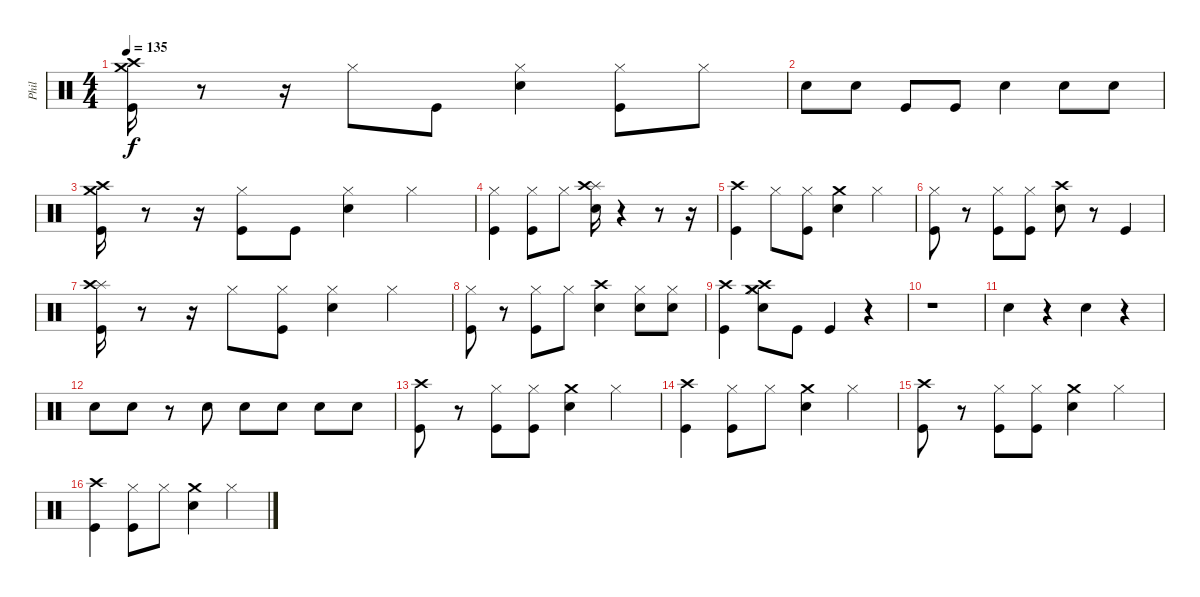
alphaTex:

\track ("Phil" "Phil") {instrument percussion}
\staff {score}
\articulation defaults
\ts (4 4)
\tempo 135
\clef neutral
\ks c
("Crash medium (hit)" "Crash high (hit)" "Kick (hit)").16{dy f} r.8 r.16 "Hi-Hat (closed)".8 "Kick (hit)".8 ("Hi-Hat (closed)" "Snare (hit) 2").4 ("Hi-Hat (closed)" "Kick (hit)").8 "Hi-Hat (closed)".8 |
"Snare (hit) 2".8 "Snare (hit) 2".8 "Kick (hit)".8 "Kick (hit)".8 "Snare (hit) 2".4 "Snare (hit) 2".8 "Snare (hit) 2".8 |
("Crash medium (hit)" "Kick (hit)" "Crash high (hit)").16 r.8 r.16 ("Hi-Hat (closed)" "Kick (hit)").8 "Kick (hit)".8 ("Hi-Hat (closed)" "Snare (hit) 2").4 "Hi-Hat (closed)".4 |
("Hi-Hat (closed)" "Kick (hit)").4 ("Hi-Hat (closed)" "Kick (hit)").8 "Hi-Hat (closed)".8 ("Splash (hit)" "Crash high (hit)" "Snare (hit) 2").16 r.4 r.8 r.16 |
("Crash high (hit)" "Kick (hit)").4 "Hi-Hat (closed)".8 ("Kick (hit)" "Hi-Hat (closed)").8 ("Snare (hit) 2" "Crash medium (hit)").4 "Hi-Hat (closed)".4 |
("Hi-Hat (closed)" "Kick (hit)").8 r.8 ("Kick (hit)" "Hi-Hat (closed)").8 ("Hi-Hat (closed)" "Kick (hit)").8 ("Crash high (hit)" "Snare (hit) 2").8 r.8 "Kick (hit)".4 |
("Splash (hit)" "Kick (hit)" "Crash high (hit)").16 r.8 r.16 "Hi-Hat (closed)".8 ("Kick (hit)" "Hi-Hat (closed)").8 ("Hi-Hat (closed)" "Snare (hit) 2").4 "Hi-Hat (closed)".4 |
("Hi-Hat (closed)" "Kick (hit)").8 r.8 ("Hi-Hat (closed)" "Kick (hit)").8 "Hi-Hat (closed)".8 ("Crash high (hit)" "Snare (hit) 2").4 ("Hi-Hat (closed)" "Snare (hit) 2").8 ("Hi-Hat (closed)" "Snare (hit) 2").8 |
("Crash high (hit)" "Kick (hit)").4 ("Crash high (hit)" "Snare (hit) 2" "Crash medium (hit)" "Hi-Hat (closed)").8 "Kick (hit)".8 "Kick (hit)".4 r.4 |
r.1 |
"Snare (hit) 2".4 r.4 "Snare (hit) 2".4 r.4 |
"Snare (hit) 2".8 "Snare (hit) 2".8 r.8 "Snare (hit) 2".8 "Snare (hit) 2".8 "Snare (hit) 2".8 "Snare (hit) 2".8 "Snare (hit) 2".8 |
("Crash high (hit)" "Kick (hit)").8 r.8 ("Kick (hit)" "Hi-Hat (closed)").8 ("Kick (hit)" "Hi-Hat (closed)").8 ("Crash medium (hit)" "Snare (hit) 2").4 "Hi-Hat (closed)".4 |
("Crash high (hit)" "Kick (hit)").4 ("Hi-Hat (closed)" "Kick (hit)").8 "Hi-Hat (closed)".8 ("Crash medium (hit)" "Snare (hit) 2").4 "Hi-Hat (closed)".4 |
("Crash high (hit)" "Kick (hit)").8 r.8 ("Kick (hit)" "Hi-Hat (closed)").8 ("Kick (hit)" "Hi-Hat (closed)").8 ("Crash medium (hit)" "Snare (hit) 2").4 "Hi-Hat (closed)".4 |
("Crash high (hit)" "Kick (hit)").4 ("Hi-Hat (closed)" "Kick (hit)").8 "Hi-Hat (closed)".8 ("Crash medium (hit)" "Snare (hit) 2").4 "Hi-Hat (closed)".4
